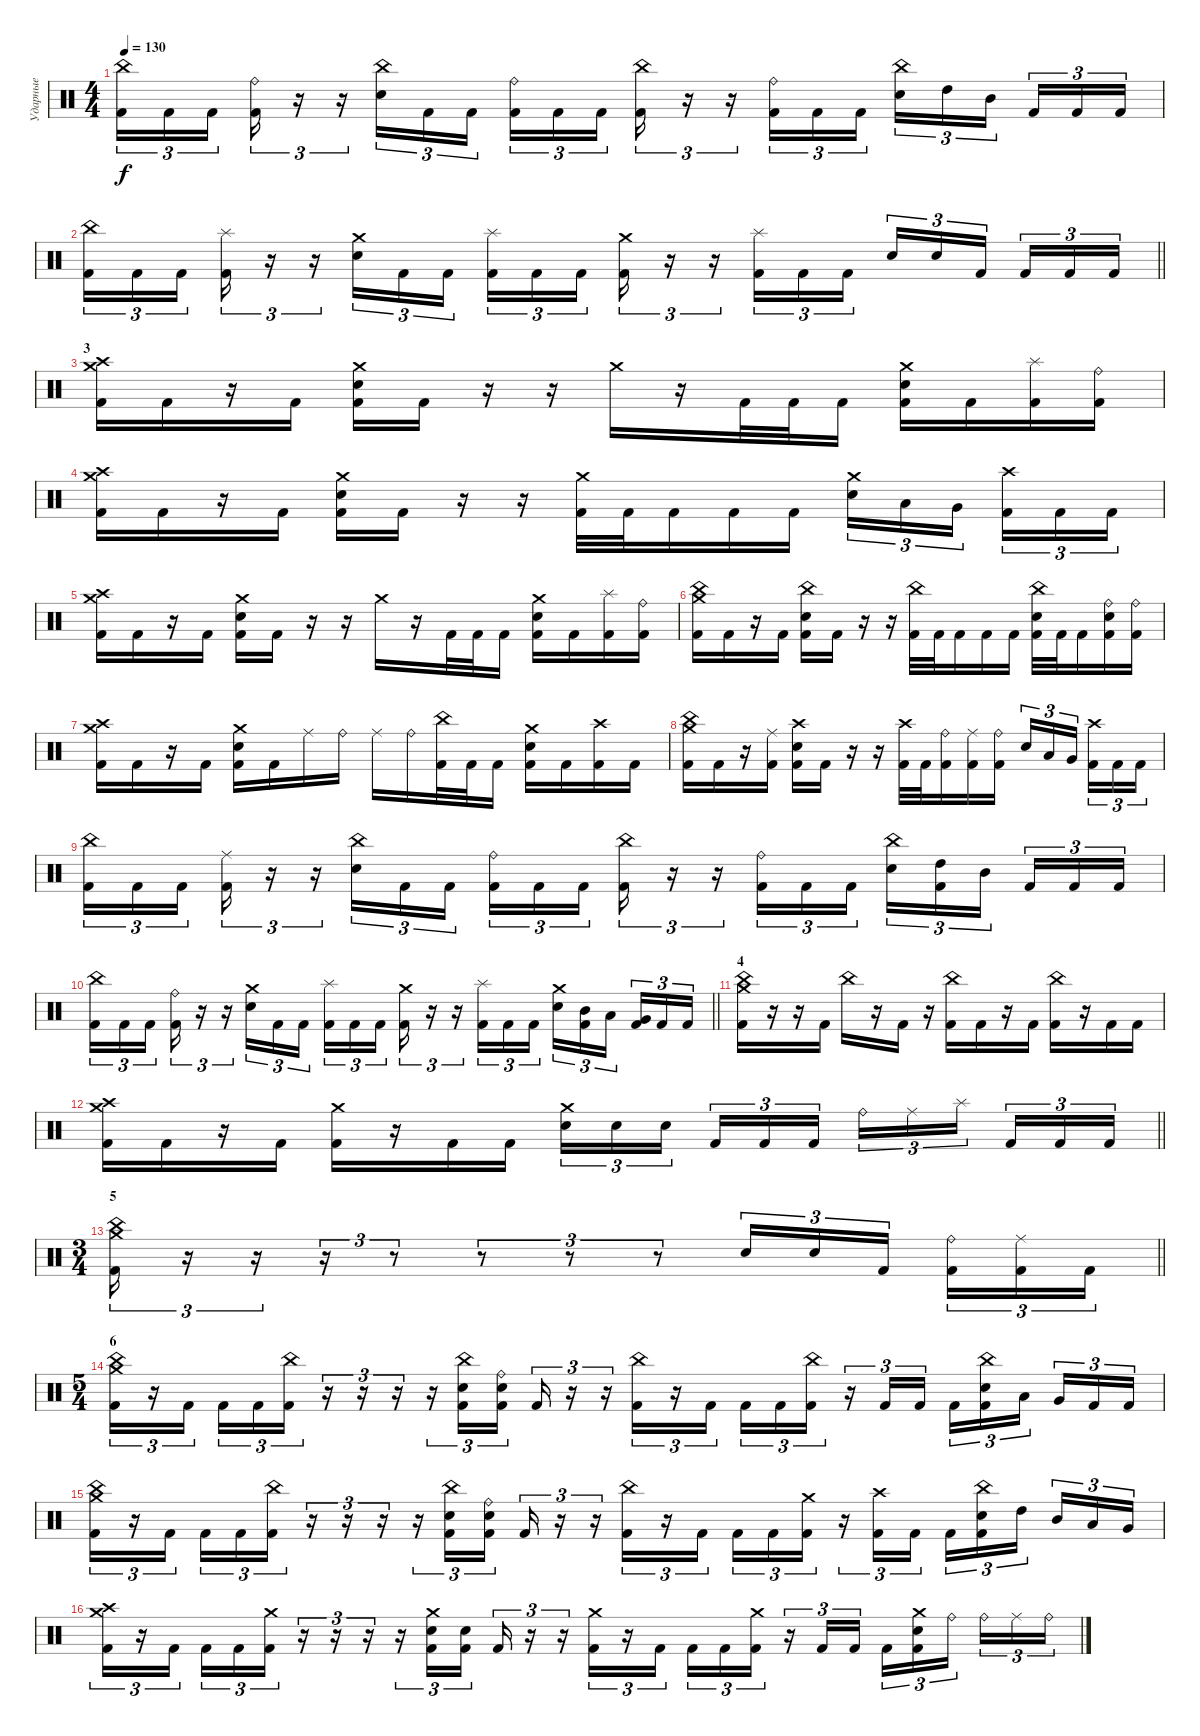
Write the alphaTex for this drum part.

\track ("Ударные" "Ударные") {instrument percussion}
\staff {score}
\articulation defaults
\ts (4 4)
\tempo 130
\clef neutral
\ks c
("China (hit)" "Kick (hit) 2").16{tu (3 2) dy f} "Kick (hit) 2".16{tu (3 2)} "Kick (hit) 2".16{tu (3 2) beam splitsecondary} ("Ride (bell)" "Kick (hit) 2").16{tu (3 2)} r.16{tu (3 2)} r.16{tu (3 2)} ("China (hit)" "Electric Snare (hit)").16{tu (3 2)} "Kick (hit) 2".16{tu (3 2)} "Kick (hit) 2".16{tu (3 2) beam splitsecondary} ("Ride (bell)" "Kick (hit) 2").16{tu (3 2)} "Kick (hit) 2".16{tu (3 2)} "Kick (hit) 2".16{tu (3 2)} ("China (hit)" "Kick (hit) 2").16{tu (3 2)} r.16{tu (3 2)} r.16{tu (3 2)} ("Ride (bell)" "Kick (hit) 2").16{tu (3 2)} "Kick (hit) 2".16{tu (3 2)} "Kick (hit) 2".16{tu (3 2)} ("China (hit)" "Electric Snare (hit)").16{tu (3 2)} "High Tom (hit)".16{tu (3 2)} "Mid Tom (hit)".16{tu (3 2) beam splitsecondary} "Kick (hit) 2".16{tu (3 2)} "Kick (hit) 2".16{tu (3 2)} "Kick (hit) 2".16{tu (3 2)} |
\barLineRight lightlight
("China (hit)" "Kick (hit) 2").16{tu (3 2)} "Kick (hit) 2".16{tu (3 2)} "Kick (hit) 2".16{tu (3 2) beam splitsecondary} ("Splash (hit)" "Kick (hit) 2").16{tu (3 2)} r.16{tu (3 2)} r.16{tu (3 2)} ("Crash medium (hit)" "Electric Snare (hit)").16{tu (3 2)} "Kick (hit) 2".16{tu (3 2)} "Kick (hit) 2".16{tu (3 2) beam splitsecondary} ("Splash (hit)" "Kick (hit) 2").16{tu (3 2)} "Kick (hit) 2".16{tu (3 2)} "Kick (hit) 2".16{tu (3 2)} ("Crash medium (hit)" "Kick (hit) 2").16{tu (3 2)} r.16{tu (3 2)} r.16{tu (3 2)} ("Splash (hit)" "Kick (hit) 2").16{tu (3 2)} "Kick (hit) 2".16{tu (3 2)} "Kick (hit) 2".16{tu (3 2)} "Electric Snare (hit)".16{tu (3 2)} "Electric Snare (hit)".16{tu (3 2)} "Kick (hit) 2".16{tu (3 2) beam splitsecondary} "Kick (hit) 2".16{tu (3 2)} "Kick (hit) 2".16{tu (3 2)} "Kick (hit) 2".16{tu (3 2)} |
\section ("" "3")
("Crash medium (hit)" "Crash high (hit)" "Kick (hit) 2").16 "Kick (hit) 2".16 r.16 "Kick (hit) 2".16 ("Crash medium (hit)" "Electric Snare (hit)" "Kick (hit) 2").16 "Kick (hit) 2".16 r.16 r.16 "Crash medium (hit)".16 r.16 "Kick (hit) 2".32 "Kick (hit) 2".32 "Kick (hit) 2".16 ("Crash medium (hit)" "Electric Snare (hit)" "Kick (hit) 2").16 "Kick (hit) 2".16 ("Splash (hit)" "Kick (hit) 2").16 ("Ride (bell)" "Kick (hit) 2").16 |
("Crash medium (hit)" "Crash high (hit)" "Kick (hit) 2").16 "Kick (hit) 2".16 r.16 "Kick (hit) 2".16 ("Crash medium (hit)" "Electric Snare (hit)" "Kick (hit) 2").16 "Kick (hit) 2".16 r.16 r.16 ("Crash medium (hit)" "Kick (hit) 2").32 "Kick (hit) 2".32 "Kick (hit) 2".16 "Kick (hit) 2".16 "Kick (hit) 2".16 ("Crash medium (hit)" "Electric Snare (hit)").16{tu (3 2)} "Low Tom (hit)".16{tu (3 2)} "Very Low Tom (hit)".16{tu (3 2) beam splitsecondary} ("Crash high (hit)" "Kick (hit) 2").16{tu (3 2)} "Kick (hit) 2".16{tu (3 2)} "Kick (hit) 2".16{tu (3 2)} |
("Crash medium (hit)" "Crash high (hit)" "Kick (hit) 2").16 "Kick (hit) 2".16 r.16 "Kick (hit) 2".16 ("Crash medium (hit)" "Electric Snare (hit)" "Kick (hit) 2").16 "Kick (hit) 2".16 r.16 r.16 "Crash medium (hit)".16 r.16 "Kick (hit) 2".32 "Kick (hit) 2".32 "Kick (hit) 2".16 ("Crash medium (hit)" "Electric Snare (hit)" "Kick (hit) 2").16 "Kick (hit) 2".16 ("Splash (hit)" "Kick (hit) 2").16 ("Ride (bell)" "Kick (hit) 2").16 |
("China (hit)" "Crash medium (hit)" "Kick (hit) 2").16 "Kick (hit) 2".16 r.16 "Kick (hit) 2".16 ("China (hit)" "Electric Snare (hit)" "Kick (hit) 2").16 "Kick (hit) 2".16 r.16 r.16 ("China (hit)" "Kick (hit) 2").32 "Kick (hit) 2".32 "Kick (hit) 2".16 "Kick (hit) 2".16 "Kick (hit) 2".16 ("China (hit)" "Electric Snare (hit)" "Kick (hit) 2").32 "Kick (hit) 2".32 "Kick (hit) 2".16 ("Ride (bell)" "Electric Snare (hit)" "Kick (hit) 2").16 ("Ride (bell)" "Kick (hit) 2").16 |
("Crash medium (hit)" "Crash high (hit)" "Kick (hit) 2").16 "Kick (hit) 2".16 r.16 "Kick (hit) 2".16 ("Crash medium (hit)" "Electric Snare (hit)" "Kick (hit) 2").16 "Kick (hit) 2".16 "Ride (middle)".16 "Ride (bell)".16 "Ride (middle)".16 "Ride (bell)".16 ("China (hit)" "Kick (hit) 2").32 "Kick (hit) 2".32 "Kick (hit) 2".16 ("Crash medium (hit)" "Electric Snare (hit)" "Kick (hit) 2").16 "Kick (hit) 2".16 ("Crash high (hit)" "Kick (hit) 2").16 "Kick (hit) 2".16 |
("China (hit)" "Crash medium (hit)" "Kick (hit) 2").16 "Kick (hit) 2".16 r.16 ("Ride (middle)" "Kick (hit) 2").16 ("Crash high (hit)" "Electric Snare (hit)" "Kick (hit) 2").16 "Kick (hit) 2".16 r.16 r.16 ("Crash high (hit)" "Kick (hit) 2").32 "Kick (hit) 2".32 ("Ride (bell)" "Kick (hit) 2").16 ("Ride (middle)" "Kick (hit) 2").16 ("Ride (bell)" "Kick (hit) 2").16 "Electric Snare (hit)".16{tu (3 2)} "Low Tom (hit)".16{tu (3 2)} "Very Low Tom (hit)".16{tu (3 2) beam splitsecondary} ("Crash high (hit)" "Kick (hit) 2").16{tu (3 2)} "Kick (hit) 2".16{tu (3 2)} "Kick (hit) 2".16{tu (3 2)} |
("China (hit)" "Kick (hit) 2").16{tu (3 2)} "Kick (hit) 2".16{tu (3 2)} "Kick (hit) 2".16{tu (3 2) beam splitsecondary} ("Ride (middle)" "Kick (hit) 2").16{tu (3 2)} r.16{tu (3 2)} r.16{tu (3 2)} ("China (hit)" "Electric Snare (hit)").16{tu (3 2)} "Kick (hit) 2".16{tu (3 2)} "Kick (hit) 2".16{tu (3 2) beam splitsecondary} ("Ride (bell)" "Kick (hit) 2").16{tu (3 2)} "Kick (hit) 2".16{tu (3 2)} "Kick (hit) 2".16{tu (3 2)} ("China (hit)" "Kick (hit) 2").16{tu (3 2)} r.16{tu (3 2)} r.16{tu (3 2)} ("Ride (bell)" "Kick (hit) 2").16{tu (3 2)} "Kick (hit) 2".16{tu (3 2)} "Kick (hit) 2".16{tu (3 2)} ("China (hit)" "Electric Snare (hit)").16{tu (3 2)} ("High Tom (hit)" "Kick (hit) 2").16{tu (3 2)} "Mid Tom (hit)".16{tu (3 2) beam splitsecondary} "Kick (hit) 2".16{tu (3 2)} "Kick (hit) 2".16{tu (3 2)} "Kick (hit) 2".16{tu (3 2)} |
\barLineRight lightlight
("China (hit)" "Kick (hit) 2").16{tu (3 2)} "Kick (hit) 2".16{tu (3 2)} "Kick (hit) 2".16{tu (3 2) beam splitsecondary} ("Ride (bell)" "Kick (hit) 2").16{tu (3 2)} r.16{tu (3 2)} r.16{tu (3 2)} ("Crash medium (hit)" "Electric Snare (hit)").16{tu (3 2)} "Kick (hit) 2".16{tu (3 2)} "Kick (hit) 2".16{tu (3 2) beam splitsecondary} ("Splash (hit)" "Kick (hit) 2").16{tu (3 2)} "Kick (hit) 2".16{tu (3 2)} "Kick (hit) 2".16{tu (3 2)} ("Crash medium (hit)" "Kick (hit) 2").16{tu (3 2)} r.16{tu (3 2)} r.16{tu (3 2)} ("Splash (hit)" "Kick (hit) 2").16{tu (3 2)} "Kick (hit) 2".16{tu (3 2)} "Kick (hit) 2".16{tu (3 2)} ("Crash medium (hit)" "Electric Snare (hit)").16{tu (3 2)} ("Mid Tom (hit)" "Kick (hit) 2").16{tu (3 2)} "Low Tom (hit)".16{tu (3 2) beam splitsecondary} ("Very Low Tom (hit)" "Kick (hit) 2").16{tu (3 2)} "Kick (hit) 2".16{tu (3 2)} "Kick (hit) 2".16{tu (3 2)} |
\section ("" "4")
("China (hit)" "Crash medium (hit)" "Kick (hit) 2").16 r.16 r.16 "Kick (hit) 2".16 "China (hit)".16 r.16 "Kick (hit) 2".16 r.16 ("China (hit)" "Kick (hit) 2").16 "Kick (hit) 2".16 r.16 "Kick (hit) 2".16 ("China (hit)" "Kick (hit) 2").16 r.16 "Kick (hit) 2".16 "Kick (hit) 2".16 |
\barLineRight lightlight
("Crash medium (hit)" "Crash high (hit)" "Kick (hit) 2").16 "Kick (hit) 2".16 r.16 "Kick (hit) 2".16 ("Crash medium (hit)" "Kick (hit) 2").16 r.16 "Kick (hit) 2".16 "Kick (hit) 2".16 ("Crash medium (hit)" "Electric Snare (hit)").16{tu (3 2)} "Electric Snare (hit)".16{tu (3 2)} "Electric Snare (hit)".16{tu (3 2) beam splitsecondary} "Kick (hit) 2".16{tu (3 2)} "Kick (hit) 2".16{tu (3 2)} "Kick (hit) 2".16{tu (3 2)} "Ride (bell)".16{tu (3 2)} "Ride (middle)".16{tu (3 2)} "Splash (hit)".16{tu (3 2) beam splitsecondary} "Kick (hit) 2".16{tu (3 2)} "Kick (hit) 2".16{tu (3 2)} "Kick (hit) 2".16{tu (3 2)} |
\ts (3 4)
\section ("" "5")
\barLineRight lightlight
("China (hit)" "Crash medium (hit)" "Kick (hit) 2").16{tu (3 2)} r.16{tu (3 2)} r.16{tu (3 2)} r.16{tu (3 2)} r.8{tu (3 2)} r.8{tu (3 2)} r.8{tu (3 2)} r.8{tu (3 2)} "Electric Snare (hit)".16{tu (3 2)} "Electric Snare (hit)".16{tu (3 2)} "Kick (hit) 2".16{tu (3 2) beam splitsecondary} ("Ride (bell)" "Kick (hit) 2").16{tu (3 2)} ("Ride (middle)" "Kick (hit) 2").16{tu (3 2)} "Kick (hit) 2".16{tu (3 2)} |
\ts (5 4)
\section ("" "6")
("China (hit)" "Crash medium (hit)" "Kick (hit) 2").16{tu (3 2)} r.16{tu (3 2)} "Kick (hit) 2".16{tu (3 2) beam splitsecondary} "Kick (hit) 2".16{tu (3 2)} "Kick (hit) 2".16{tu (3 2)} ("China (hit)" "Kick (hit) 2").16{tu (3 2)} r.16{tu (3 2)} r.16{tu (3 2)} r.16{tu (3 2)} r.16{tu (3 2)} ("China (hit)" "Electric Snare (hit)" "Kick (hit) 2").16{tu (3 2)} ("Ride (bell)" "Electric Snare (hit)" "Kick (hit) 2").16{tu (3 2)} "Kick (hit) 2".16{tu (3 2)} r.16{tu (3 2)} r.16{tu (3 2)} ("China (hit)" "Kick (hit) 2").16{tu (3 2)} r.16{tu (3 2)} "Kick (hit) 2".16{tu (3 2)} "Kick (hit) 2".16{tu (3 2)} "Kick (hit) 2".16{tu (3 2)} ("China (hit)" "Kick (hit) 2").16{tu (3 2)} r.16{tu (3 2)} "Kick (hit) 2".16{tu (3 2)} "Kick (hit) 2".16{tu (3 2)} "Kick (hit) 2".16{tu (3 2)} ("China (hit)" "Electric Snare (hit)" "Kick (hit) 2").16{tu (3 2)} "Low Tom (hit)".16{tu (3 2) beam splitsecondary} "Very Low Tom (hit)".16{tu (3 2)} "Kick (hit) 2".16{tu (3 2)} "Kick (hit) 2".16{tu (3 2)} |
("China (hit)" "Crash medium (hit)" "Kick (hit) 2").16{tu (3 2)} r.16{tu (3 2)} "Kick (hit) 2".16{tu (3 2) beam splitsecondary} "Kick (hit) 2".16{tu (3 2)} "Kick (hit) 2".16{tu (3 2)} ("China (hit)" "Kick (hit) 2").16{tu (3 2)} r.16{tu (3 2)} r.16{tu (3 2)} r.16{tu (3 2)} r.16{tu (3 2)} ("China (hit)" "Electric Snare (hit)" "Kick (hit) 2").16{tu (3 2)} ("Ride (bell)" "Electric Snare (hit)" "Kick (hit) 2").16{tu (3 2)} "Kick (hit) 2".16{tu (3 2)} r.16{tu (3 2)} r.16{tu (3 2)} ("China (hit)" "Kick (hit) 2").16{tu (3 2)} r.16{tu (3 2)} "Kick (hit) 2".16{tu (3 2)} "Kick (hit) 2".16{tu (3 2)} "Kick (hit) 2".16{tu (3 2)} ("Crash medium (hit)" "Kick (hit) 2").16{tu (3 2)} r.16{tu (3 2)} ("Crash high (hit)" "Kick (hit) 2").16{tu (3 2)} "Kick (hit) 2".16{tu (3 2)} "Kick (hit) 2".16{tu (3 2)} ("China (hit)" "Electric Snare (hit)" "Kick (hit) 2").16{tu (3 2)} "High Tom (hit)".16{tu (3 2) beam splitsecondary} "Mid Tom (hit)".16{tu (3 2)} "Low Tom (hit)".16{tu (3 2)} "Very Low Tom (hit)".16{tu (3 2)} |
("Crash high (hit)" "Crash medium (hit)" "Kick (hit) 2").16{tu (3 2)} r.16{tu (3 2)} "Kick (hit) 2".16{tu (3 2) beam splitsecondary} "Kick (hit) 2".16{tu (3 2)} "Kick (hit) 2".16{tu (3 2)} ("Crash medium (hit)" "Kick (hit) 2").16{tu (3 2)} r.16{tu (3 2)} r.16{tu (3 2)} r.16{tu (3 2)} r.16{tu (3 2)} ("Crash medium (hit)" "Electric Snare (hit)" "Kick (hit) 2").16{tu (3 2)} ("Electric Snare (hit)" "Kick (hit) 2").16{tu (3 2)} "Kick (hit) 2".16{tu (3 2)} r.16{tu (3 2)} r.16{tu (3 2)} ("Crash medium (hit)" "Kick (hit) 2").16{tu (3 2)} r.16{tu (3 2)} "Kick (hit) 2".16{tu (3 2)} "Kick (hit) 2".16{tu (3 2)} "Kick (hit) 2".16{tu (3 2)} ("Crash medium (hit)" "Kick (hit) 2").16{tu (3 2)} r.16{tu (3 2)} "Kick (hit) 2".16{tu (3 2)} "Kick (hit) 2".16{tu (3 2)} "Kick (hit) 2".16{tu (3 2)} ("Crash medium (hit)" "Electric Snare (hit)" "Kick (hit) 2").16{tu (3 2)} "Ride (bell)".16{tu (3 2) beam splitsecondary} "Ride (bell)".16{tu (3 2)} "Ride (middle)".16{tu (3 2)} "Ride (bell)".16{tu (3 2)}
